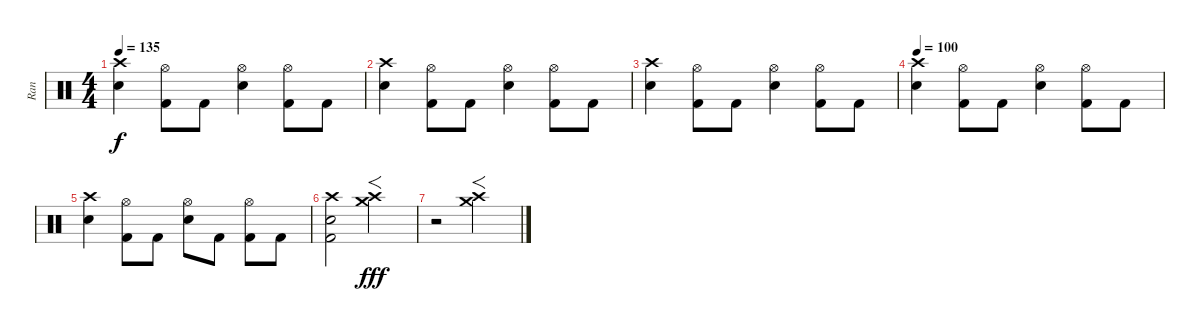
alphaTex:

\track ("Ran" "Ran") {instrument percussion}
\staff {score}
\articulation defaults
\ts (4 4)
\tempo 135
\clef neutral
\ks c
("Crash high (hit)" "Snare (hit) 2").4{dy f} ("Hi-Hat (open)" "Kick (hit) 2").8 "Kick (hit) 2".8 ("Hi-Hat (open)" "Snare (hit) 2").4 ("Hi-Hat (open)" "Kick (hit) 2").8 "Kick (hit) 2".8 |
("Crash high (hit)" "Snare (hit) 2").4 ("Hi-Hat (open)" "Kick (hit) 2").8 "Kick (hit) 2".8 ("Hi-Hat (open)" "Snare (hit) 2").4 ("Hi-Hat (open)" "Kick (hit) 2").8 "Kick (hit) 2".8 |
("Crash high (hit)" "Snare (hit) 2").4 ("Hi-Hat (open)" "Kick (hit) 2").8 "Kick (hit) 2".8 ("Hi-Hat (open)" "Snare (hit) 2").4 ("Hi-Hat (open)" "Kick (hit) 2").8 "Kick (hit) 2".8 |
\tempo 100
("Crash high (hit)" "Snare (hit) 2").4 ("Hi-Hat (open)" "Kick (hit) 2").8 "Kick (hit) 2".8 ("Hi-Hat (open)" "Snare (hit) 2").4 ("Hi-Hat (open)" "Kick (hit) 2").8 "Kick (hit) 2".8 |
("Crash high (hit)" "Snare (hit) 2").4 ("Hi-Hat (open)" "Kick (hit) 2").8 "Kick (hit) 2".8 ("Hi-Hat (open)" "Snare (hit) 2").8 "Kick (hit) 2".8 ("Hi-Hat (open)" "Kick (hit) 2").8 "Kick (hit) 2".8 |
("Crash high (hit)" "Snare (hit) 2" "Kick (hit) 2").2 ("Crash high (hit)" "Crash medium (hit)").2{f dy fff} |
r.2 ("Crash high (hit)" "Crash medium (hit)").2{f}
